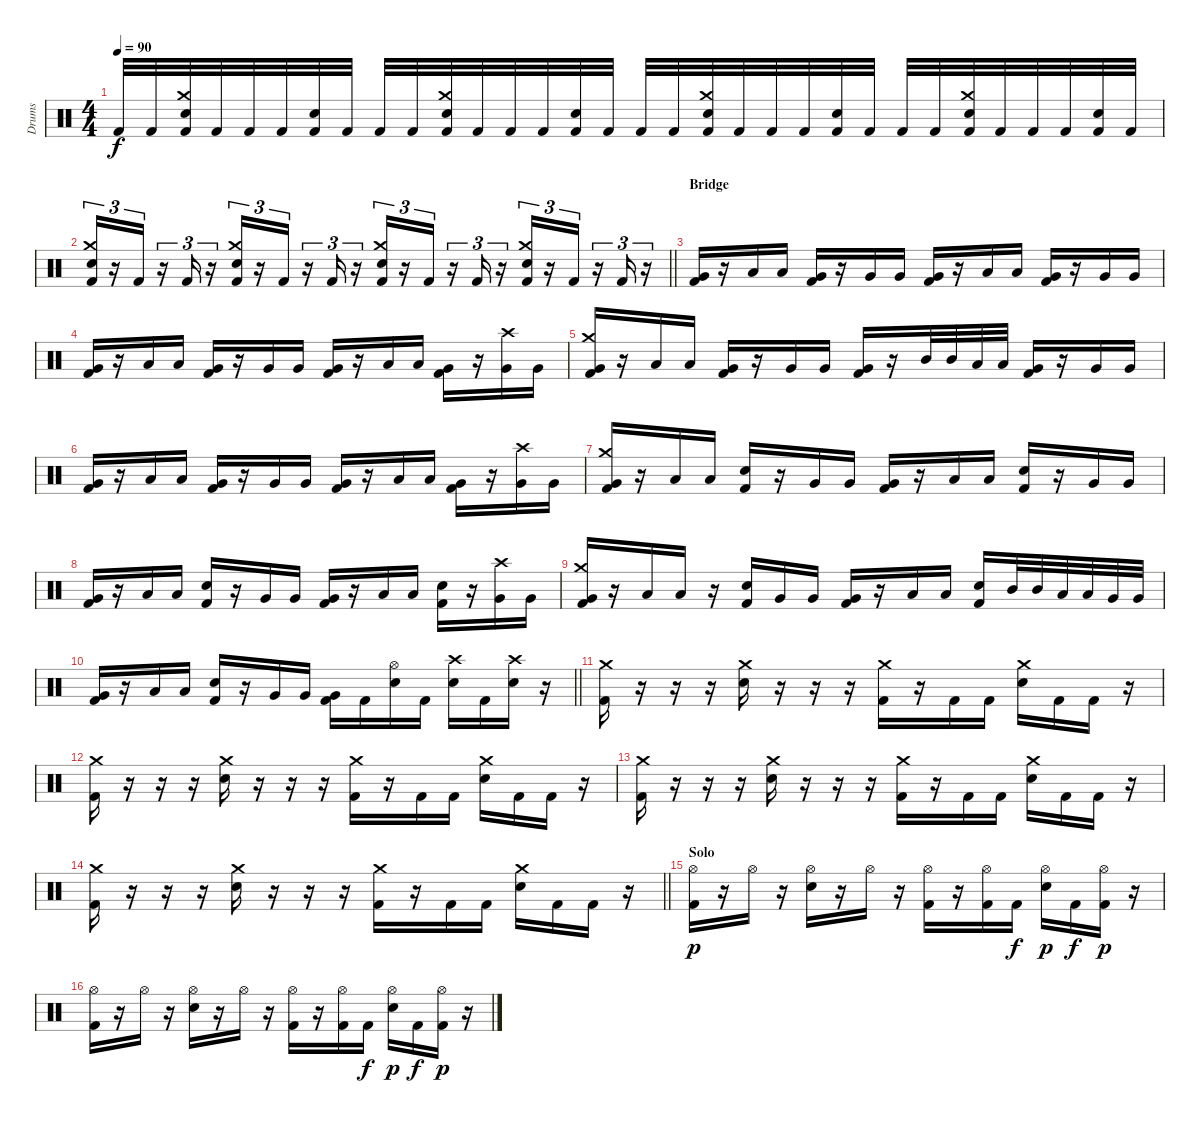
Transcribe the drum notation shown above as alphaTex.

\track ("Drums" "Drums") {instrument percussion}
\staff {score}
\articulation defaults
\ts (4 4)
\tempo 90
\clef neutral
\ks c "Kick (hit) 2".32{dy f} "Kick (hit) 2".32
("Crash medium (hit)" "Electric Snare (hit)" "Kick (hit) 2").32 "Kick (hit) 2".32 "Kick (hit) 2".32 "Kick (hit) 2".32 ("Electric Snare (hit)" "Kick (hit) 2").32 "Kick (hit) 2".32 "Kick (hit) 2".32 "Kick (hit) 2".32 ("Crash medium (hit)" "Electric Snare (hit)" "Kick (hit) 2").32 "Kick (hit) 2".32 "Kick (hit) 2".32 "Kick (hit) 2".32 ("Electric Snare (hit)" "Kick (hit) 2").32 "Kick (hit) 2".32 "Kick (hit) 2".32 "Kick (hit) 2".32 ("Crash medium (hit)" "Electric Snare (hit)" "Kick (hit) 2").32 "Kick (hit) 2".32 "Kick (hit) 2".32 "Kick (hit) 2".32 ("Electric Snare (hit)" "Kick (hit) 2").32 "Kick (hit) 2".32 "Kick (hit) 2".32 "Kick (hit) 2".32 ("Crash medium (hit)" "Electric Snare (hit)" "Kick (hit) 2").32 "Kick (hit) 2".32 "Kick (hit) 2".32 "Kick (hit) 2".32 ("Electric Snare (hit)" "Kick (hit) 2").32 "Kick (hit) 2".32 |
\barLineRight lightlight
("Crash medium (hit)" "Electric Snare (hit)" "Kick (hit) 2").16{tu (3 2)} r.16{tu (3 2)} "Kick (hit) 2".16{tu (3 2)} r.16{tu (3 2)} "Kick (hit) 2".16{tu (3 2)} r.16{tu (3 2)} ("Crash medium (hit)" "Electric Snare (hit)" "Kick (hit) 2").16{tu (3 2)} r.16{tu (3 2)} "Kick (hit) 2".16{tu (3 2)} r.16{tu (3 2)} "Kick (hit) 2".16{tu (3 2)} r.16{tu (3 2)} ("Crash medium (hit)" "Electric Snare (hit)" "Kick (hit) 2").16{tu (3 2)} r.16{tu (3 2)} "Kick (hit) 2".16{tu (3 2)} r.16{tu (3 2)} "Kick (hit) 2".16{tu (3 2)} r.16{tu (3 2)} ("Crash medium (hit)" "Electric Snare (hit)" "Kick (hit) 2").16{tu (3 2)} r.16{tu (3 2)} "Kick (hit) 2".16{tu (3 2)} r.16{tu (3 2)} "Kick (hit) 2".16{tu (3 2)} r.16{tu (3 2)} |
\section ("" "Bridge")
("Very Low Tom (hit)" "Kick (hit) 2").16 r.16 "Low Tom (hit)".16 "Low Tom (hit)".16 ("Very Low Tom (hit)" "Kick (hit) 2").16 r.16 "Very Low Tom (hit)".16 "Very Low Tom (hit)".16 ("Very Low Tom (hit)" "Kick (hit) 2").16 r.16 "Low Tom (hit)".16 "Low Tom (hit)".16 ("Very Low Tom (hit)" "Kick (hit) 2").16 r.16 "Very Low Tom (hit)".16 "Very Low Tom (hit)".16 |
("Very Low Tom (hit)" "Kick (hit) 2").16 r.16 "Low Tom (hit)".16 "Low Tom (hit)".16 ("Very Low Tom (hit)" "Kick (hit) 2").16 r.16 "Very Low Tom (hit)".16 "Very Low Tom (hit)".16 ("Very Low Tom (hit)" "Kick (hit) 2").16 r.16 "Low Tom (hit)".16 "Low Tom (hit)".16 ("Very Low Tom (hit)" "Kick (hit) 2").16 r.16 ("Crash high (hit)" "Very Low Tom (hit)").16 "Very Low Tom (hit)".16 |
("Crash medium (hit)" "Very Low Tom (hit)" "Kick (hit) 2").16 r.16 "Low Tom (hit)".16 "Low Tom (hit)".16 ("Very Low Tom (hit)" "Kick (hit) 2").16 r.16 "Very Low Tom (hit)".16 "Very Low Tom (hit)".16 ("Very Low Tom (hit)" "Kick (hit) 2").16 r.16 "Mid Tom (hit)".32 "Mid Tom (hit)".32 "Low Tom (hit)".32 "Low Tom (hit)".32 ("Very Low Tom (hit)" "Kick (hit) 2").16 r.16 "Very Low Tom (hit)".16 "Very Low Tom (hit)".16 |
("Very Low Tom (hit)" "Kick (hit) 2").16 r.16 "Low Tom (hit)".16 "Low Tom (hit)".16 ("Very Low Tom (hit)" "Kick (hit) 2").16 r.16 "Very Low Tom (hit)".16 "Very Low Tom (hit)".16 ("Very Low Tom (hit)" "Kick (hit) 2").16 r.16 "Low Tom (hit)".16 "Low Tom (hit)".16 ("Very Low Tom (hit)" "Kick (hit) 2").16 r.16 ("Crash high (hit)" "Very Low Tom (hit)").16 "Very Low Tom (hit)".16 |
("Crash medium (hit)" "Very Low Tom (hit)" "Kick (hit) 2").16 r.16 "Low Tom (hit)".16 "Low Tom (hit)".16 ("Electric Snare (hit)" "Kick (hit) 2").16 r.16 "Very Low Tom (hit)".16 "Very Low Tom (hit)".16 ("Very Low Tom (hit)" "Kick (hit) 2").16 r.16 "Low Tom (hit)".16 "Low Tom (hit)".16 ("Electric Snare (hit)" "Kick (hit) 2").16 r.16 "Very Low Tom (hit)".16 "Very Low Tom (hit)".16 |
("Very Low Tom (hit)" "Kick (hit) 2").16 r.16 "Low Tom (hit)".16 "Low Tom (hit)".16 ("Electric Snare (hit)" "Kick (hit) 2").16 r.16 "Very Low Tom (hit)".16 "Very Low Tom (hit)".16 ("Very Low Tom (hit)" "Kick (hit) 2").16 r.16 "Low Tom (hit)".16 "Low Tom (hit)".16 ("Electric Snare (hit)" "Kick (hit) 2").16 r.16 ("Crash high (hit)" "Very Low Tom (hit)").16 "Very Low Tom (hit)".16 |
("Crash medium (hit)" "Very Low Tom (hit)" "Kick (hit) 2").16 r.16 "Low Tom (hit)".16 "Low Tom (hit)".16 r.16 ("Electric Snare (hit)" "Kick (hit) 2").16 "Very Low Tom (hit)".16 "Very Low Tom (hit)".16 ("Very Low Tom (hit)" "Kick (hit) 2").16 r.16 "Low Tom (hit)".16 "Low Tom (hit)".16 ("Electric Snare (hit)" "Kick (hit) 2").16 "Mid Tom (hit)".32 "Mid Tom (hit)".32 "Low Tom (hit)".32 "Low Tom (hit)".32 "Very Low Tom (hit)".32 "Very Low Tom (hit)".32 |
\barLineRight lightlight
("Very Low Tom (hit)" "Kick (hit) 2").16 r.16 "Low Tom (hit)".16 "Low Tom (hit)".16 ("Electric Snare (hit)" "Kick (hit) 2").16 r.16 "Very Low Tom (hit)".16 "Very Low Tom (hit)".16 ("Very Low Tom (hit)" "Kick (hit) 2").16 "Kick (hit) 2".16 ("Hi-Hat (open)" "Electric Snare (hit)").16 "Kick (hit) 2".16 ("Crash high (hit)" "Electric Snare (hit)").16 "Kick (hit) 2".16 ("Crash high (hit)" "Electric Snare (hit)").16 r.16 |
\section ("" "")
("Crash medium (hit)" "Kick (hit) 2").16 r.16 r.16 r.16 ("Crash medium (hit)" "Electric Snare (hit)").16 r.16 r.16 r.16 ("Crash medium (hit)" "Kick (hit) 2").16 r.16 "Kick (hit) 2".16 "Kick (hit) 2".16 ("Crash medium (hit)" "Electric Snare (hit)").16 "Kick (hit) 2".16 "Kick (hit) 2".16 r.16 |
("Crash medium (hit)" "Kick (hit) 2").16 r.16 r.16 r.16 ("Crash medium (hit)" "Electric Snare (hit)").16 r.16 r.16 r.16 ("Crash medium (hit)" "Kick (hit) 2").16 r.16 "Kick (hit) 2".16 "Kick (hit) 2".16 ("Crash medium (hit)" "Electric Snare (hit)").16 "Kick (hit) 2".16 "Kick (hit) 2".16 r.16 |
("Crash medium (hit)" "Kick (hit) 2").16 r.16 r.16 r.16 ("Crash medium (hit)" "Electric Snare (hit)").16 r.16 r.16 r.16 ("Crash medium (hit)" "Kick (hit) 2").16 r.16 "Kick (hit) 2".16 "Kick (hit) 2".16 ("Crash medium (hit)" "Electric Snare (hit)").16 "Kick (hit) 2".16 "Kick (hit) 2".16{volume 0} r.16 |
\barLineRight lightlight
("Crash medium (hit)" "Kick (hit) 2").16{volume 12} r.16 r.16 r.16 ("Crash medium (hit)" "Electric Snare (hit)").16 r.16 r.16 r.16 ("Crash medium (hit)" "Kick (hit) 2").16 r.16 "Kick (hit) 2".16 "Kick (hit) 2".16 ("Crash medium (hit)" "Electric Snare (hit)").16 "Kick (hit) 2".16 "Kick (hit) 2".16 r.16 |
\section ("" "Solo")
("Hi-Hat (open)" "Kick (hit) 2").16{dy p} r.16 "Hi-Hat (open)".16 r.16 ("Hi-Hat (open)" "Electric Snare (hit)").16 r.16 "Hi-Hat (open)".16 r.16 ("Hi-Hat (open)" "Kick (hit) 2").16 r.16 ("Hi-Hat (open)" "Kick (hit) 2").16 "Kick (hit) 2".16{dy f} ("Hi-Hat (open)" "Electric Snare (hit)").16{dy p} "Kick (hit) 2".16{dy f} ("Hi-Hat (open)" "Kick (hit) 2").16{dy p} r.16 |
("Hi-Hat (open)" "Kick (hit) 2").16 r.16 "Hi-Hat (open)".16 r.16 ("Hi-Hat (open)" "Electric Snare (hit)").16 r.16 "Hi-Hat (open)".16 r.16 ("Hi-Hat (open)" "Kick (hit) 2").16 r.16 ("Hi-Hat (open)" "Kick (hit) 2").16 "Kick (hit) 2".16{dy f} ("Hi-Hat (open)" "Electric Snare (hit)").16{dy p} "Kick (hit) 2".16{dy f} ("Hi-Hat (open)" "Kick (hit) 2").16{dy p} r.16
